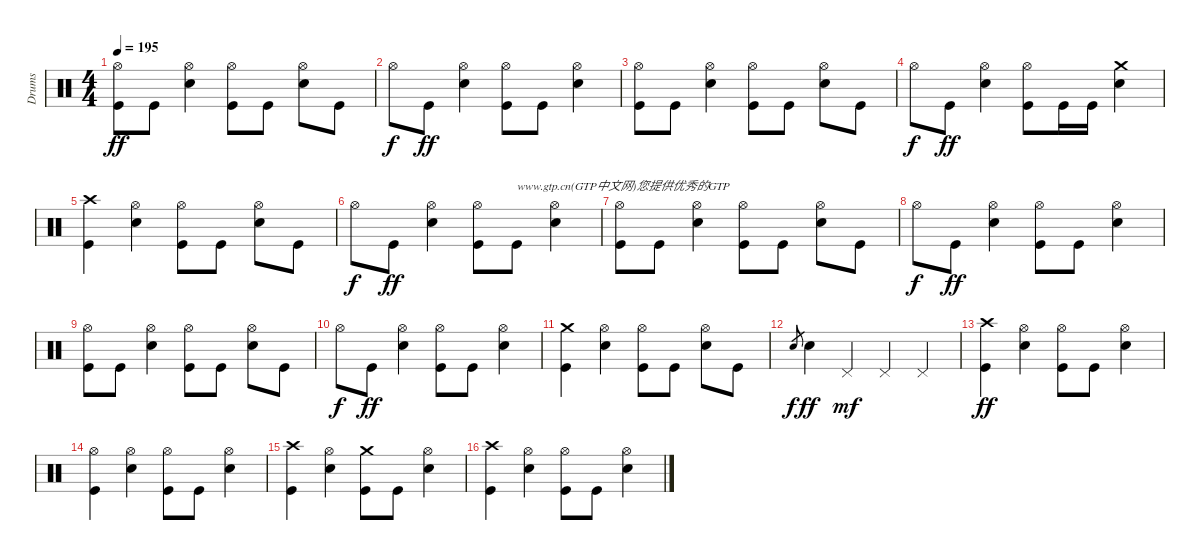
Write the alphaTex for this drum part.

\track ("Drums" "Drums") {instrument percussion}
\staff {score}
\articulation defaults
\ts (4 4)
\tempo 195
\clef neutral
\ks c
("Hi-Hat (open)" "Kick (hit)").8{dy ff} "Kick (hit)".8 ("Hi-Hat (open)" "Snare (hit) 2").4 ("Hi-Hat (open)" "Kick (hit)").8 "Kick (hit)".8 ("Hi-Hat (open)" "Snare (hit) 2").8 "Kick (hit)".8 |
"Hi-Hat (open)".8{dy f} "Kick (hit)".8{dy ff} ("Hi-Hat (open)" "Snare (hit) 2").4 ("Hi-Hat (open)" "Kick (hit)").8 "Kick (hit)".8 ("Hi-Hat (open)" "Snare (hit) 2").4 |
("Hi-Hat (open)" "Kick (hit)").8 "Kick (hit)".8 ("Hi-Hat (open)" "Snare (hit) 2").4 ("Hi-Hat (open)" "Kick (hit)").8 "Kick (hit)".8 ("Hi-Hat (open)" "Snare (hit) 2").8 "Kick (hit)".8 |
"Hi-Hat (open)".8{dy f} "Kick (hit)".8{dy ff} ("Hi-Hat (open)" "Snare (hit) 2").4 ("Hi-Hat (open)" "Kick (hit)").8 "Kick (hit)".16 "Kick (hit)".16 ("Crash medium (hit)" "Snare (hit) 2").4 |
("Crash high (hit)" "Kick (hit)").4 ("Hi-Hat (open)" "Snare (hit) 2").4 ("Hi-Hat (open)" "Kick (hit)").8 "Kick (hit)".8 ("Hi-Hat (open)" "Snare (hit) 2").8 "Kick (hit)".8 |
"Hi-Hat (open)".8{dy f} "Kick (hit)".8{dy ff} ("Hi-Hat (open)" "Snare (hit) 2").4 ("Hi-Hat (open)" "Kick (hit)").8 "Kick (hit)".8{txt "www.gtp.cn(GTP中文网)您提供优秀的GTP"} ("Hi-Hat (open)" "Snare (hit) 2").4 |
("Hi-Hat (open)" "Kick (hit)").8 "Kick (hit)".8 ("Hi-Hat (open)" "Snare (hit) 2").4 ("Hi-Hat (open)" "Kick (hit)").8 "Kick (hit)".8 ("Hi-Hat (open)" "Snare (hit) 2").8 "Kick (hit)".8 |
"Hi-Hat (open)".8{dy f} "Kick (hit)".8{dy ff} ("Hi-Hat (open)" "Snare (hit) 2").4 ("Hi-Hat (open)" "Kick (hit)").8 "Kick (hit)".8 ("Hi-Hat (open)" "Snare (hit) 2").4 |
("Hi-Hat (open)" "Kick (hit)").8 "Kick (hit)".8 ("Hi-Hat (open)" "Snare (hit) 2").4 ("Hi-Hat (open)" "Kick (hit)").8 "Kick (hit)".8 ("Hi-Hat (open)" "Snare (hit) 2").8 "Kick (hit)".8 |
"Hi-Hat (open)".8{dy f} "Kick (hit)".8{dy ff} ("Hi-Hat (open)" "Snare (hit) 2").4 ("Hi-Hat (open)" "Kick (hit)").8 "Kick (hit)".8 ("Hi-Hat (open)" "Snare (hit) 2").4 |
("Crash medium (hit)" "Kick (hit)").4 ("Hi-Hat (open)" "Snare (hit) 2").4 ("Hi-Hat (open)" "Kick (hit)").8 "Kick (hit)".8 ("Hi-Hat (open)" "Snare (hit) 2").8 "Kick (hit)".8 |
"Snare (hit) 2".8{gr dy f} "Snare (hit) 2".4{dy ff} "Pedal Hi-Hat (hit)".4{dy mf} "Pedal Hi-Hat (hit)".4 "Pedal Hi-Hat (hit)".4 |
("Crash high (hit)" "Kick (hit)").4{dy ff} ("Hi-Hat (open)" "Snare (hit) 2").4 ("Hi-Hat (open)" "Kick (hit)").8 "Kick (hit)".8 ("Hi-Hat (open)" "Snare (hit) 2").4 |
("Hi-Hat (open)" "Kick (hit)").4 ("Hi-Hat (open)" "Snare (hit) 2").4 ("Hi-Hat (open)" "Kick (hit)").8 "Kick (hit)".8 ("Hi-Hat (open)" "Snare (hit) 2").4 |
("Crash high (hit)" "Kick (hit)").4 ("Hi-Hat (open)" "Snare (hit) 2").4 ("Crash medium (hit)" "Kick (hit)").8 "Kick (hit)".8 ("Hi-Hat (open)" "Snare (hit) 2").4 |
("Crash high (hit)" "Kick (hit)").4 ("Hi-Hat (open)" "Snare (hit) 2").4 ("Hi-Hat (open)" "Kick (hit)").8 "Kick (hit)".8 ("Hi-Hat (open)" "Snare (hit) 2").4
